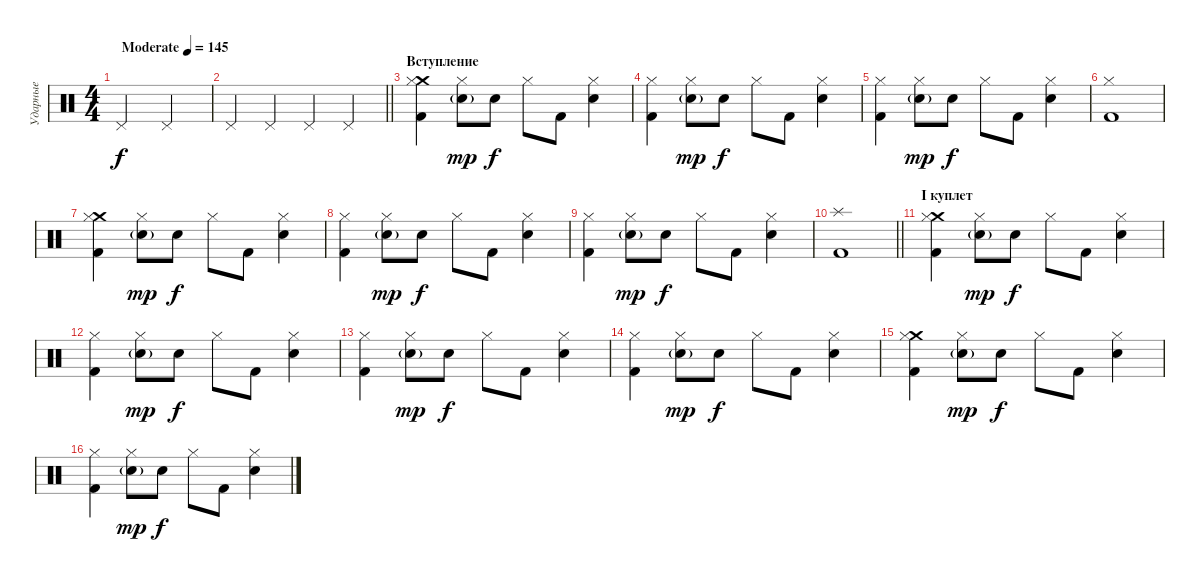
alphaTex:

\track ("Ударные" "Ударные") {instrument percussion}
\staff {score}
\articulation defaults
\ts (4 4)
\tempo (145 "Moderate")
\clef neutral
\ks c "Pedal Hi-Hat (hit)".2{dy f} "Pedal Hi-Hat (hit)".2
|
\barLineRight lightlight "Pedal Hi-Hat (hit)".4 "Pedal Hi-Hat (hit)".4 "Pedal Hi-Hat (hit)".4 "Pedal Hi-Hat (hit)".4
|
\section ("" "Вступление")
("Crash medium (hit)" "Kick (hit) 2" "Hi-Hat (closed)").4 ("Electric Snare (hit)"{g} "Hi-Hat (closed)").8{dy mp} "Electric Snare (hit)".8{dy f} "Hi-Hat (closed)".8 "Kick (hit) 2".8 ("Electric Snare (hit)" "Hi-Hat (closed)").4 |
("Kick (hit) 2" "Hi-Hat (closed)").4 ("Electric Snare (hit)"{g} "Hi-Hat (closed)").8{dy mp} "Electric Snare (hit)".8{dy f} "Hi-Hat (closed)".8 "Kick (hit) 2".8 ("Electric Snare (hit)" "Hi-Hat (closed)").4 |
("Kick (hit) 2" "Hi-Hat (closed)").4 ("Electric Snare (hit)"{g} "Hi-Hat (closed)").8{dy mp} "Electric Snare (hit)".8{dy f} "Hi-Hat (closed)".8 "Kick (hit) 2".8 ("Electric Snare (hit)" "Hi-Hat (closed)").4 |
("Kick (hit) 2" "Hi-Hat (closed)").1 |
("Crash medium (hit)" "Kick (hit) 2" "Hi-Hat (closed)").4 ("Electric Snare (hit)"{g} "Hi-Hat (closed)").8{dy mp} "Electric Snare (hit)".8{dy f} "Hi-Hat (closed)".8 "Kick (hit) 2".8 ("Electric Snare (hit)" "Hi-Hat (closed)").4 |
("Kick (hit) 2" "Hi-Hat (closed)").4 ("Electric Snare (hit)"{g} "Hi-Hat (closed)").8{dy mp} "Electric Snare (hit)".8{dy f} "Hi-Hat (closed)".8 "Kick (hit) 2".8 ("Electric Snare (hit)" "Hi-Hat (closed)").4 |
("Kick (hit) 2" "Hi-Hat (closed)").4 ("Electric Snare (hit)"{g} "Hi-Hat (closed)").8{dy mp} "Electric Snare (hit)".8{dy f} "Hi-Hat (closed)".8 "Kick (hit) 2".8 ("Electric Snare (hit)" "Hi-Hat (closed)").4 |
\barLineRight lightlight
("Kick (hit) 2" "Splash (hit)").1 |
\section ("" "I куплет")
("Crash medium (hit)" "Kick (hit) 2" "Hi-Hat (closed)").4 ("Electric Snare (hit)"{g} "Hi-Hat (closed)").8{dy mp} "Electric Snare (hit)".8{dy f} "Hi-Hat (closed)".8 "Kick (hit) 2".8 ("Electric Snare (hit)" "Hi-Hat (closed)").4 |
("Kick (hit) 2" "Hi-Hat (closed)").4 ("Electric Snare (hit)"{g} "Hi-Hat (closed)").8{dy mp} "Electric Snare (hit)".8{dy f} "Hi-Hat (closed)".8 "Kick (hit) 2".8 ("Electric Snare (hit)" "Hi-Hat (closed)").4 |
("Kick (hit) 2" "Hi-Hat (closed)").4 ("Electric Snare (hit)"{g} "Hi-Hat (closed)").8{dy mp} "Electric Snare (hit)".8{dy f} "Hi-Hat (closed)".8 "Kick (hit) 2".8 ("Electric Snare (hit)" "Hi-Hat (closed)").4 |
("Kick (hit) 2" "Hi-Hat (closed)").4 ("Electric Snare (hit)"{g} "Hi-Hat (closed)").8{dy mp} "Electric Snare (hit)".8{dy f} "Hi-Hat (closed)".8 "Kick (hit) 2".8 ("Electric Snare (hit)" "Hi-Hat (closed)").4 |
("Crash medium (hit)" "Kick (hit) 2" "Hi-Hat (closed)").4 ("Electric Snare (hit)"{g} "Hi-Hat (closed)").8{dy mp} "Electric Snare (hit)".8{dy f} "Hi-Hat (closed)".8 "Kick (hit) 2".8 ("Electric Snare (hit)" "Hi-Hat (closed)").4 |
("Kick (hit) 2" "Hi-Hat (closed)").4 ("Electric Snare (hit)"{g} "Hi-Hat (closed)").8{dy mp} "Electric Snare (hit)".8{dy f} "Hi-Hat (closed)".8 "Kick (hit) 2".8 ("Electric Snare (hit)" "Hi-Hat (closed)").4
